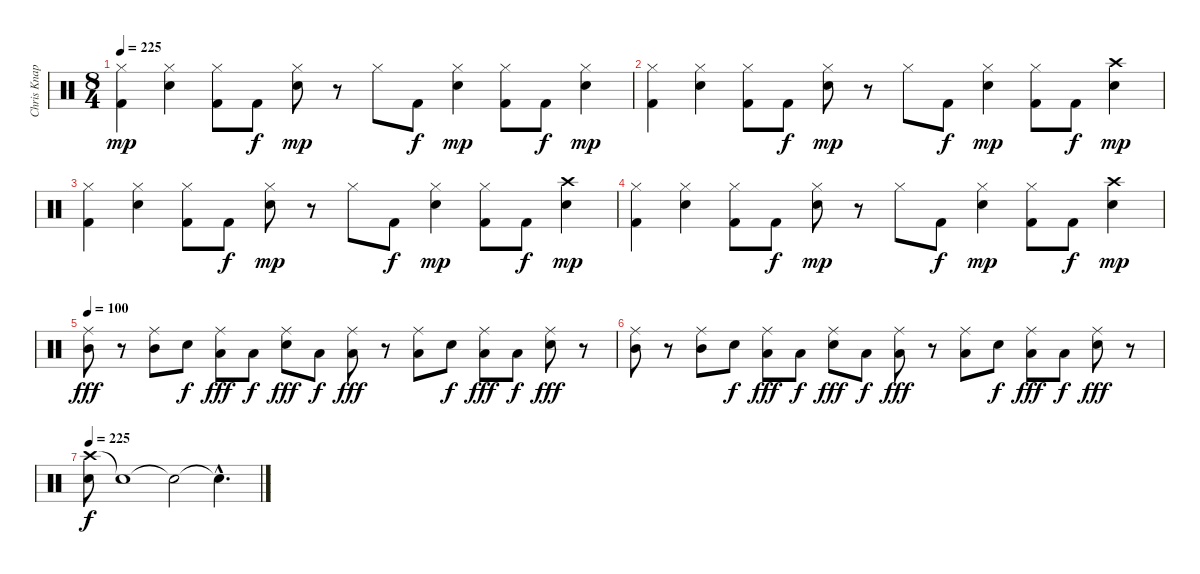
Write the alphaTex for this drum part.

\track ("Chris Knapp" "Chris Knap") {instrument percussion}
\staff {score}
\articulation defaults
\ts (8 4)
\tempo 225
\clef neutral
\ks c
("Hi-Hat (closed)" "Kick (hit) 2").4{dy mp} ("Hi-Hat (closed)" "Electric Snare (hit)").4 ("Hi-Hat (closed)" "Kick (hit) 2").8 "Kick (hit) 2".8{dy f} ("Hi-Hat (closed)" "Electric Snare (hit)").8{dy mp} r.8 "Hi-Hat (closed)".8 "Kick (hit) 2".8{dy f} ("Hi-Hat (closed)" "Electric Snare (hit)").4{dy mp} ("Hi-Hat (closed)" "Kick (hit) 2").8 "Kick (hit) 2".8{dy f} ("Hi-Hat (closed)" "Electric Snare (hit)").4{dy mp} |
("Hi-Hat (closed)" "Kick (hit) 2").4 ("Hi-Hat (closed)" "Electric Snare (hit)").4 ("Hi-Hat (closed)" "Kick (hit) 2").8 "Kick (hit) 2".8{dy f} ("Hi-Hat (closed)" "Electric Snare (hit)").8{dy mp} r.8 "Hi-Hat (closed)".8 "Kick (hit) 2".8{dy f} ("Hi-Hat (closed)" "Electric Snare (hit)").4{dy mp} ("Hi-Hat (closed)" "Kick (hit) 2").8 "Kick (hit) 2".8{dy f} ("Crash high (hit)" "Electric Snare (hit)").4{dy mp} |
("Hi-Hat (closed)" "Kick (hit) 2").4 ("Hi-Hat (closed)" "Electric Snare (hit)").4 ("Hi-Hat (closed)" "Kick (hit) 2").8 "Kick (hit) 2".8{dy f} ("Hi-Hat (closed)" "Electric Snare (hit)").8{dy mp} r.8 "Hi-Hat (closed)".8 "Kick (hit) 2".8{dy f} ("Hi-Hat (closed)" "Electric Snare (hit)").4{dy mp} ("Hi-Hat (closed)" "Kick (hit) 2").8 "Kick (hit) 2".8{dy f} ("Crash high (hit)" "Electric Snare (hit)").4{dy mp} |
("Hi-Hat (closed)" "Kick (hit) 2").4 ("Hi-Hat (closed)" "Electric Snare (hit)").4 ("Hi-Hat (closed)" "Kick (hit) 2").8 "Kick (hit) 2".8{dy f} ("Hi-Hat (closed)" "Electric Snare (hit)").8{dy mp} r.8 "Hi-Hat (closed)".8 "Kick (hit) 2".8{dy f} ("Hi-Hat (closed)" "Electric Snare (hit)").4{dy mp} ("Hi-Hat (closed)" "Kick (hit) 2").8 "Kick (hit) 2".8{dy f} ("Crash high (hit)" "Electric Snare (hit)").4{dy mp} |
\tempo 100
("Ride (middle)" "Mid Tom (hit)").8{dy fff} r.8 ("Ride (middle)" "Mid Tom (hit)").8 "Electric Snare (hit)".8{dy f} ("Ride (middle)" "Low Floor Tom (hit)").8{dy fff} "Low Floor Tom (hit)".8{dy f} ("Ride (middle)" "Electric Snare (hit)").8{dy fff} "Low Floor Tom (hit)".8{dy f} ("Ride (middle)" "Low Floor Tom (hit)").8{dy fff} r.8 ("Ride (middle)" "Low Floor Tom (hit)").8 "Electric Snare (hit)".8{dy f} ("Ride (middle)" "Low Floor Tom (hit)").8{dy fff} "Low Floor Tom (hit)".8{dy f} ("Ride (middle)" "Electric Snare (hit)").8{dy fff} r.8 |
("Ride (middle)" "Mid Tom (hit)").8 r.8 ("Ride (middle)" "Mid Tom (hit)").8 "Electric Snare (hit)".8{dy f} ("Ride (middle)" "Low Floor Tom (hit)").8{dy fff} "Low Floor Tom (hit)".8{dy f} ("Ride (middle)" "Electric Snare (hit)").8{dy fff} "Low Floor Tom (hit)".8{dy f} ("Ride (middle)" "Low Floor Tom (hit)").8{dy fff} r.8 ("Ride (middle)" "Low Floor Tom (hit)").8 "Electric Snare (hit)".8{dy f} ("Ride (middle)" "Low Floor Tom (hit)").8{dy fff} "Low Floor Tom (hit)".8{dy f} ("Ride (middle)" "Electric Snare (hit)").8{dy fff} r.8 |
\tempo 225
("Crash high (hit)" "Electric Snare (hit)").8{dy f} "Snare (hit)"{t}.1 "Snare (hit)"{t}.2 "Snare (hit)"{hac t}.4{d}
